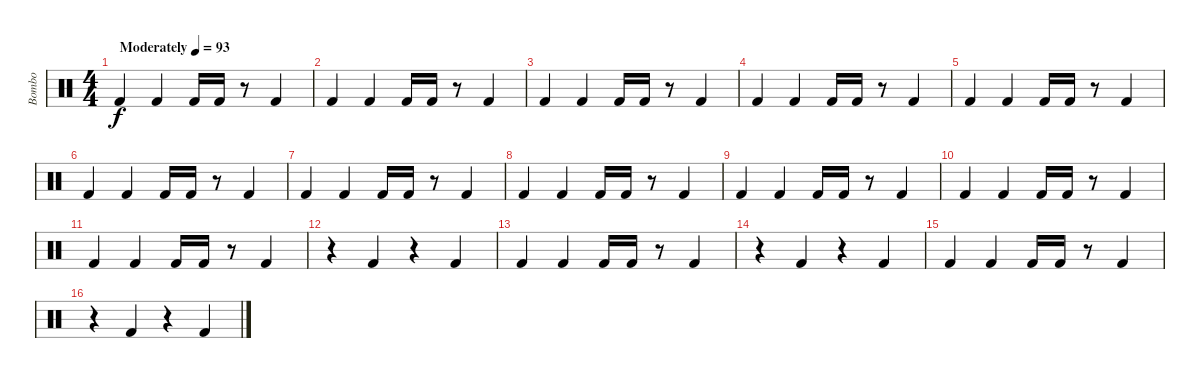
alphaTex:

\track ("Bombo" "Bombo") {instrument percussion bank 1}
\staff {score}
\articulation defaults
\ts (4 4)
\tempo (93 "Moderately")
\clef neutral
\ks c "Kick (hit) 2".4{dy f} "Kick (hit) 2".4 "Kick (hit) 2".16 "Kick (hit) 2".16
r.8 "Kick (hit) 2".4 |
"Kick (hit) 2".4 "Kick (hit) 2".4 "Kick (hit) 2".16 "Kick (hit) 2".16 r.8 "Kick (hit) 2".4 |
"Kick (hit) 2".4 "Kick (hit) 2".4 "Kick (hit) 2".16 "Kick (hit) 2".16 r.8 "Kick (hit) 2".4 |
"Kick (hit) 2".4 "Kick (hit) 2".4 "Kick (hit) 2".16 "Kick (hit) 2".16 r.8 "Kick (hit) 2".4 |
"Kick (hit) 2".4 "Kick (hit) 2".4 "Kick (hit) 2".16 "Kick (hit) 2".16 r.8 "Kick (hit) 2".4 |
"Kick (hit) 2".4 "Kick (hit) 2".4 "Kick (hit) 2".16 "Kick (hit) 2".16 r.8 "Kick (hit) 2".4 |
"Kick (hit) 2".4 "Kick (hit) 2".4 "Kick (hit) 2".16 "Kick (hit) 2".16 r.8 "Kick (hit) 2".4 |
"Kick (hit) 2".4 "Kick (hit) 2".4 "Kick (hit) 2".16 "Kick (hit) 2".16 r.8 "Kick (hit) 2".4 |
"Kick (hit) 2".4 "Kick (hit) 2".4 "Kick (hit) 2".16 "Kick (hit) 2".16 r.8 "Kick (hit) 2".4 |
"Kick (hit) 2".4 "Kick (hit) 2".4 "Kick (hit) 2".16 "Kick (hit) 2".16 r.8 "Kick (hit) 2".4 |
"Kick (hit) 2".4 "Kick (hit) 2".4 "Kick (hit) 2".16 "Kick (hit) 2".16 r.8 "Kick (hit) 2".4 |
r.4 "Kick (hit) 2".4 r.4 "Kick (hit) 2".4 |
"Kick (hit) 2".4 "Kick (hit) 2".4 "Kick (hit) 2".16 "Kick (hit) 2".16 r.8 "Kick (hit) 2".4 |
r.4 "Kick (hit) 2".4 r.4 "Kick (hit) 2".4 |
"Kick (hit) 2".4 "Kick (hit) 2".4 "Kick (hit) 2".16 "Kick (hit) 2".16 r.8 "Kick (hit) 2".4 |
r.4 "Kick (hit) 2".4 r.4 "Kick (hit) 2".4
